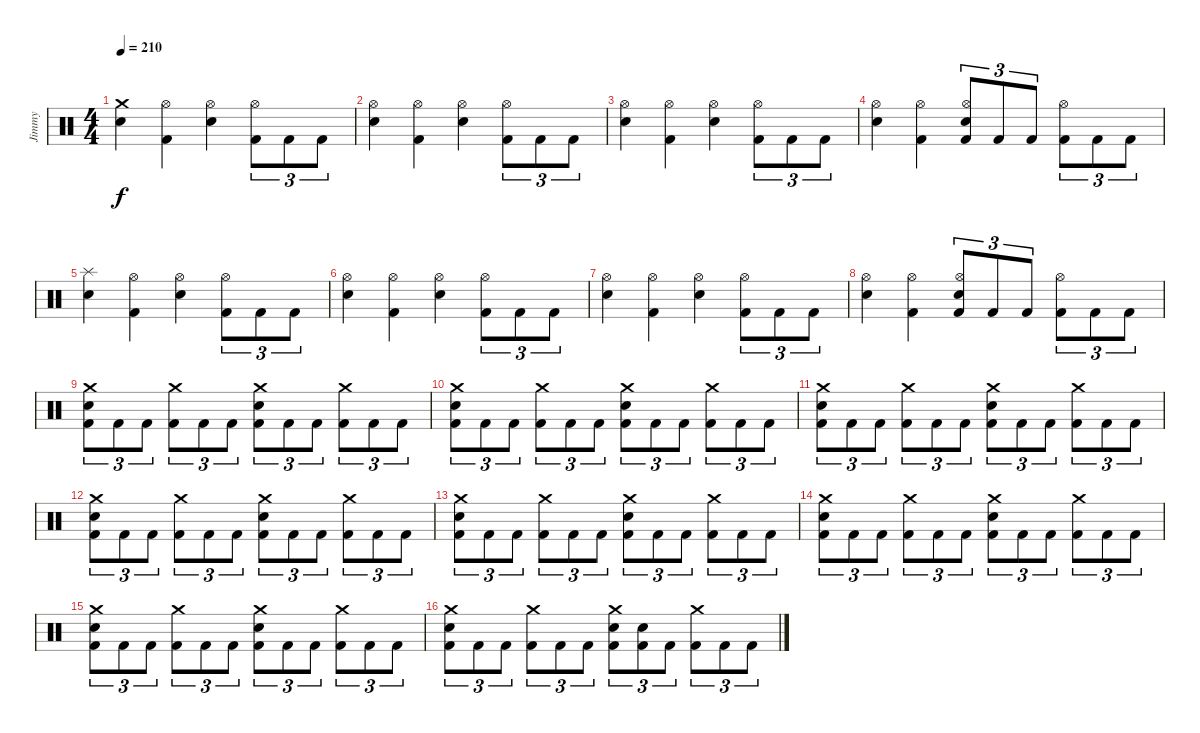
\track ("Jimmy" "Jimmy") {instrument percussion}
\staff {score}
\articulation defaults
\ts (4 4)
\tempo 210
\clef neutral
\ks c
("Crash medium (hit)" "Electric Snare (hit)").4{dy f} ("Hi-Hat (open)" "Kick (hit) 2").4 ("Hi-Hat (open)" "Electric Snare (hit)").4 ("Hi-Hat (open)" "Kick (hit) 2").8{tu (3 2)} "Kick (hit) 2".8{tu (3 2)} "Kick (hit) 2".8{tu (3 2)} |
("Hi-Hat (open)" "Electric Snare (hit)").4 ("Hi-Hat (open)" "Kick (hit) 2").4 ("Hi-Hat (open)" "Electric Snare (hit)").4 ("Hi-Hat (open)" "Kick (hit) 2").8{tu (3 2)} "Kick (hit) 2".8{tu (3 2)} "Kick (hit) 2".8{tu (3 2)} |
("Hi-Hat (open)" "Electric Snare (hit)").4 ("Hi-Hat (open)" "Kick (hit) 2").4 ("Hi-Hat (open)" "Electric Snare (hit)").4 ("Hi-Hat (open)" "Kick (hit) 2").8{tu (3 2)} "Kick (hit) 2".8{tu (3 2)} "Kick (hit) 2".8{tu (3 2)} |
("Hi-Hat (open)" "Electric Snare (hit)").4 ("Hi-Hat (open)" "Kick (hit) 2").4 ("Hi-Hat (open)" "Electric Snare (hit)" "Kick (hit) 2").8{tu (3 2)} "Kick (hit) 2".8{tu (3 2)} "Kick (hit) 2".8{tu (3 2)} ("Hi-Hat (open)" "Kick (hit) 2").8{tu (3 2)} "Kick (hit) 2".8{tu (3 2)} "Kick (hit) 2".8{tu (3 2)} |
("Splash (hit)" "Electric Snare (hit)").4 ("Hi-Hat (open)" "Kick (hit) 2").4 ("Hi-Hat (open)" "Electric Snare (hit)").4 ("Hi-Hat (open)" "Kick (hit) 2").8{tu (3 2)} "Kick (hit) 2".8{tu (3 2)} "Kick (hit) 2".8{tu (3 2)} |
("Hi-Hat (open)" "Electric Snare (hit)").4 ("Hi-Hat (open)" "Kick (hit) 2").4 ("Hi-Hat (open)" "Electric Snare (hit)").4 ("Hi-Hat (open)" "Kick (hit) 2").8{tu (3 2)} "Kick (hit) 2".8{tu (3 2)} "Kick (hit) 2".8{tu (3 2)} |
("Hi-Hat (open)" "Electric Snare (hit)").4 ("Hi-Hat (open)" "Kick (hit) 2").4 ("Hi-Hat (open)" "Electric Snare (hit)").4 ("Hi-Hat (open)" "Kick (hit) 2").8{tu (3 2)} "Kick (hit) 2".8{tu (3 2)} "Kick (hit) 2".8{tu (3 2)} |
("Hi-Hat (open)" "Electric Snare (hit)").4 ("Hi-Hat (open)" "Kick (hit) 2").4 ("Hi-Hat (open)" "Electric Snare (hit)" "Kick (hit) 2").8{tu (3 2)} "Kick (hit) 2".8{tu (3 2)} "Kick (hit) 2".8{tu (3 2)} ("Hi-Hat (open)" "Kick (hit) 2").8{tu (3 2)} "Kick (hit) 2".8{tu (3 2)} "Kick (hit) 2".8{tu (3 2)} |
("Crash medium (hit)" "Electric Snare (hit)" "Kick (hit) 2").8{tu (3 2)} "Kick (hit) 2".8{tu (3 2)} "Kick (hit) 2".8{tu (3 2)} ("Crash medium (hit)" "Kick (hit) 2").8{tu (3 2)} "Kick (hit) 2".8{tu (3 2)} "Kick (hit) 2".8{tu (3 2)} ("Crash medium (hit)" "Electric Snare (hit)" "Kick (hit) 2").8{tu (3 2)} "Kick (hit) 2".8{tu (3 2)} "Kick (hit) 2".8{tu (3 2)} ("Crash medium (hit)" "Kick (hit) 2").8{tu (3 2)} "Kick (hit) 2".8{tu (3 2)} "Kick (hit) 2".8{tu (3 2)} |
("Crash medium (hit)" "Electric Snare (hit)" "Kick (hit) 2").8{tu (3 2)} "Kick (hit) 2".8{tu (3 2)} "Kick (hit) 2".8{tu (3 2)} ("Crash medium (hit)" "Kick (hit) 2").8{tu (3 2)} "Kick (hit) 2".8{tu (3 2)} "Kick (hit) 2".8{tu (3 2)} ("Crash medium (hit)" "Electric Snare (hit)" "Kick (hit) 2").8{tu (3 2)} "Kick (hit) 2".8{tu (3 2)} "Kick (hit) 2".8{tu (3 2)} ("Crash medium (hit)" "Kick (hit) 2").8{tu (3 2)} "Kick (hit) 2".8{tu (3 2)} "Kick (hit) 2".8{tu (3 2)} |
("Crash medium (hit)" "Electric Snare (hit)" "Kick (hit) 2").8{tu (3 2)} "Kick (hit) 2".8{tu (3 2)} "Kick (hit) 2".8{tu (3 2)} ("Crash medium (hit)" "Kick (hit) 2").8{tu (3 2)} "Kick (hit) 2".8{tu (3 2)} "Kick (hit) 2".8{tu (3 2)} ("Crash medium (hit)" "Electric Snare (hit)" "Kick (hit) 2").8{tu (3 2)} "Kick (hit) 2".8{tu (3 2)} "Kick (hit) 2".8{tu (3 2)} ("Crash medium (hit)" "Kick (hit) 2").8{tu (3 2)} "Kick (hit) 2".8{tu (3 2)} "Kick (hit) 2".8{tu (3 2)} |
("Crash medium (hit)" "Electric Snare (hit)" "Kick (hit) 2").8{tu (3 2)} "Kick (hit) 2".8{tu (3 2)} "Kick (hit) 2".8{tu (3 2)} ("Crash medium (hit)" "Kick (hit) 2").8{tu (3 2)} "Kick (hit) 2".8{tu (3 2)} "Kick (hit) 2".8{tu (3 2)} ("Crash medium (hit)" "Electric Snare (hit)" "Kick (hit) 2").8{tu (3 2)} "Kick (hit) 2".8{tu (3 2)} "Kick (hit) 2".8{tu (3 2)} ("Crash medium (hit)" "Kick (hit) 2").8{tu (3 2)} "Kick (hit) 2".8{tu (3 2)} "Kick (hit) 2".8{tu (3 2)} |
("Crash medium (hit)" "Electric Snare (hit)" "Kick (hit) 2").8{tu (3 2)} "Kick (hit) 2".8{tu (3 2)} "Kick (hit) 2".8{tu (3 2)} ("Crash medium (hit)" "Kick (hit) 2").8{tu (3 2)} "Kick (hit) 2".8{tu (3 2)} "Kick (hit) 2".8{tu (3 2)} ("Crash medium (hit)" "Electric Snare (hit)" "Kick (hit) 2").8{tu (3 2)} "Kick (hit) 2".8{tu (3 2)} "Kick (hit) 2".8{tu (3 2)} ("Crash medium (hit)" "Kick (hit) 2").8{tu (3 2)} "Kick (hit) 2".8{tu (3 2)} "Kick (hit) 2".8{tu (3 2)} |
("Crash medium (hit)" "Electric Snare (hit)" "Kick (hit) 2").8{tu (3 2)} "Kick (hit) 2".8{tu (3 2)} "Kick (hit) 2".8{tu (3 2)} ("Crash medium (hit)" "Kick (hit) 2").8{tu (3 2)} "Kick (hit) 2".8{tu (3 2)} "Kick (hit) 2".8{tu (3 2)} ("Crash medium (hit)" "Electric Snare (hit)" "Kick (hit) 2").8{tu (3 2)} "Kick (hit) 2".8{tu (3 2)} "Kick (hit) 2".8{tu (3 2)} ("Crash medium (hit)" "Kick (hit) 2").8{tu (3 2)} "Kick (hit) 2".8{tu (3 2)} "Kick (hit) 2".8{tu (3 2)} |
("Crash medium (hit)" "Electric Snare (hit)" "Kick (hit) 2").8{tu (3 2)} "Kick (hit) 2".8{tu (3 2)} "Kick (hit) 2".8{tu (3 2)} ("Crash medium (hit)" "Kick (hit) 2").8{tu (3 2)} "Kick (hit) 2".8{tu (3 2)} "Kick (hit) 2".8{tu (3 2)} ("Crash medium (hit)" "Electric Snare (hit)" "Kick (hit) 2").8{tu (3 2)} "Kick (hit) 2".8{tu (3 2)} "Kick (hit) 2".8{tu (3 2)} ("Crash medium (hit)" "Kick (hit) 2").8{tu (3 2)} "Kick (hit) 2".8{tu (3 2)} "Kick (hit) 2".8{tu (3 2)} |
("Crash medium (hit)" "Electric Snare (hit)" "Kick (hit) 2").8{tu (3 2)} "Kick (hit) 2".8{tu (3 2)} "Kick (hit) 2".8{tu (3 2)} ("Crash medium (hit)" "Kick (hit) 2").8{tu (3 2)} "Kick (hit) 2".8{tu (3 2)} "Kick (hit) 2".8{tu (3 2)} ("Crash medium (hit)" "Electric Snare (hit)" "Kick (hit) 2").8{tu (3 2)} ("Electric Snare (hit)" "Kick (hit) 2").8{tu (3 2)} "Kick (hit) 2".8{tu (3 2)} ("Crash medium (hit)" "Kick (hit) 2").8{tu (3 2)} "Kick (hit) 2".8{tu (3 2)} "Kick (hit) 2".8{tu (3 2)}
